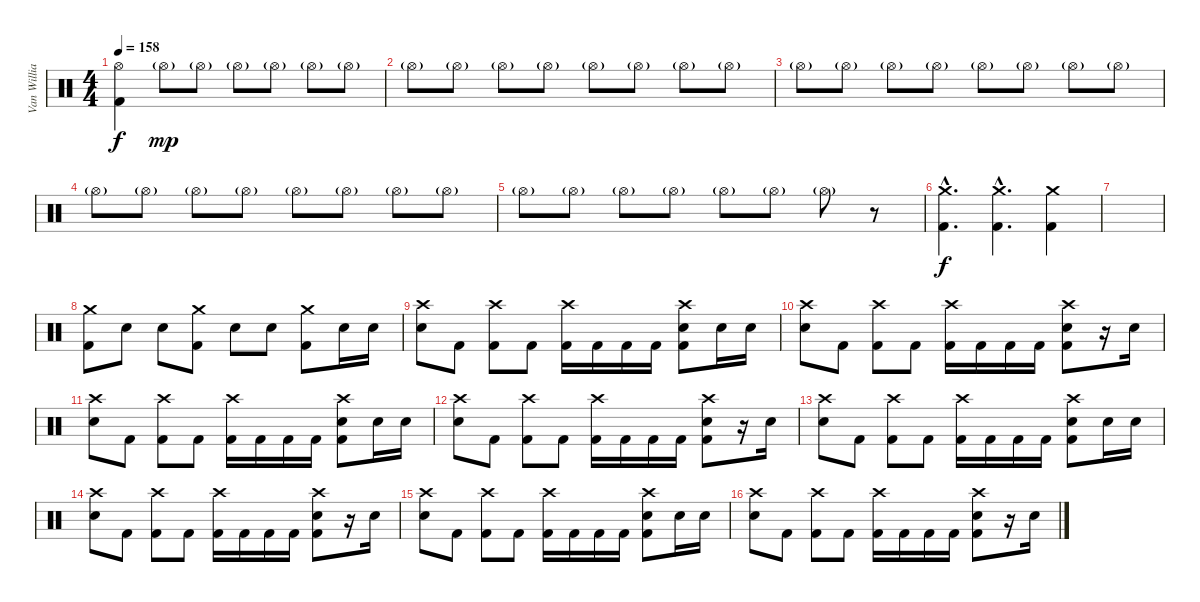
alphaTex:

\track ("Van Williams" "Van Willia") {instrument percussion}
\staff {score}
\articulation defaults
\ts (4 4)
\tempo 158
\clef neutral
\ks c
("Hi-Hat (open)" "Kick (hit) 2").4{dy f} "Hi-Hat (open)"{g}.8{dy mp} "Hi-Hat (open)"{g}.8 "Hi-Hat (open)"{g}.8 "Hi-Hat (open)"{g}.8 "Hi-Hat (open)"{g}.8 "Hi-Hat (open)"{g}.8 |
"Hi-Hat (open)"{g}.8 "Hi-Hat (open)"{g}.8 "Hi-Hat (open)"{g}.8 "Hi-Hat (open)"{g}.8 "Hi-Hat (open)"{g}.8 "Hi-Hat (open)"{g}.8 "Hi-Hat (open)"{g}.8 "Hi-Hat (open)"{g}.8 |
"Hi-Hat (open)"{g}.8 "Hi-Hat (open)"{g}.8 "Hi-Hat (open)"{g}.8 "Hi-Hat (open)"{g}.8 "Hi-Hat (open)"{g}.8 "Hi-Hat (open)"{g}.8 "Hi-Hat (open)"{g}.8 "Hi-Hat (open)"{g}.8 |
"Hi-Hat (open)"{g}.8 "Hi-Hat (open)"{g}.8 "Hi-Hat (open)"{g}.8 "Hi-Hat (open)"{g}.8 "Hi-Hat (open)"{g}.8 "Hi-Hat (open)"{g}.8 "Hi-Hat (open)"{g}.8 "Hi-Hat (open)"{g}.8 |
"Hi-Hat (open)"{g}.8 "Hi-Hat (open)"{g}.8 "Hi-Hat (open)"{g}.8 "Hi-Hat (open)"{g}.8 "Hi-Hat (open)"{g}.8 "Hi-Hat (open)"{g}.8 "Hi-Hat (open)"{g}.8 r.8 |
("Crash medium (hit)"{hac} "Kick (hit) 2"{hac}).4{d dy f} ("Crash medium (hit)"{hac} "Kick (hit) 2"{hac}).4{d} ("Crash medium (hit)" "Kick (hit) 2").4 |
|
("Crash medium (hit)" "Kick (hit) 2").8 "Electric Snare (hit)".8 "Electric Snare (hit)".8 ("Crash medium (hit)" "Kick (hit) 2").8 "Electric Snare (hit)".8 "Electric Snare (hit)".8 ("Crash medium (hit)" "Kick (hit) 2").8 "Electric Snare (hit)".16 "Electric Snare (hit)".16 |
("Crash high (hit)" "Electric Snare (hit)").8 "Kick (hit) 2".8 ("Crash high (hit)" "Kick (hit) 2").8 "Kick (hit) 2".8 ("Crash high (hit)" "Kick (hit) 2").16 "Kick (hit) 2".16 "Kick (hit) 2".16 "Kick (hit) 2".16 ("Crash high (hit)" "Electric Snare (hit)" "Kick (hit) 2").8 "Electric Snare (hit)".16 "Electric Snare (hit)".16 |
("Crash high (hit)" "Electric Snare (hit)").8 "Kick (hit) 2".8 ("Crash high (hit)" "Kick (hit) 2").8 "Kick (hit) 2".8 ("Crash high (hit)" "Kick (hit) 2").16 "Kick (hit) 2".16 "Kick (hit) 2".16 "Kick (hit) 2".16 ("Crash high (hit)" "Electric Snare (hit)" "Kick (hit) 2").8 r.16 "Electric Snare (hit)".16 |
("Crash high (hit)" "Electric Snare (hit)").8 "Kick (hit) 2".8 ("Crash high (hit)" "Kick (hit) 2").8 "Kick (hit) 2".8 ("Crash high (hit)" "Kick (hit) 2").16 "Kick (hit) 2".16 "Kick (hit) 2".16 "Kick (hit) 2".16 ("Crash high (hit)" "Electric Snare (hit)" "Kick (hit) 2").8 "Electric Snare (hit)".16 "Electric Snare (hit)".16 |
("Crash high (hit)" "Electric Snare (hit)").8 "Kick (hit) 2".8 ("Crash high (hit)" "Kick (hit) 2").8 "Kick (hit) 2".8 ("Crash high (hit)" "Kick (hit) 2").16 "Kick (hit) 2".16 "Kick (hit) 2".16 "Kick (hit) 2".16 ("Crash high (hit)" "Electric Snare (hit)" "Kick (hit) 2").8 r.16 "Electric Snare (hit)".16 |
("Crash high (hit)" "Electric Snare (hit)").8 "Kick (hit) 2".8 ("Crash high (hit)" "Kick (hit) 2").8 "Kick (hit) 2".8 ("Crash high (hit)" "Kick (hit) 2").16 "Kick (hit) 2".16 "Kick (hit) 2".16 "Kick (hit) 2".16 ("Crash high (hit)" "Electric Snare (hit)" "Kick (hit) 2").8 "Electric Snare (hit)".16 "Electric Snare (hit)".16 |
("Crash high (hit)" "Electric Snare (hit)").8 "Kick (hit) 2".8 ("Crash high (hit)" "Kick (hit) 2").8 "Kick (hit) 2".8 ("Crash high (hit)" "Kick (hit) 2").16 "Kick (hit) 2".16 "Kick (hit) 2".16 "Kick (hit) 2".16 ("Crash high (hit)" "Electric Snare (hit)" "Kick (hit) 2").8 r.16 "Electric Snare (hit)".16 |
("Crash high (hit)" "Electric Snare (hit)").8 "Kick (hit) 2".8 ("Crash high (hit)" "Kick (hit) 2").8 "Kick (hit) 2".8 ("Crash high (hit)" "Kick (hit) 2").16 "Kick (hit) 2".16 "Kick (hit) 2".16 "Kick (hit) 2".16 ("Crash high (hit)" "Electric Snare (hit)" "Kick (hit) 2").8 "Electric Snare (hit)".16 "Electric Snare (hit)".16 |
("Crash high (hit)" "Electric Snare (hit)").8 "Kick (hit) 2".8 ("Crash high (hit)" "Kick (hit) 2").8 "Kick (hit) 2".8 ("Crash high (hit)" "Kick (hit) 2").16 "Kick (hit) 2".16 "Kick (hit) 2".16 "Kick (hit) 2".16 ("Crash high (hit)" "Electric Snare (hit)" "Kick (hit) 2").8 r.16 "Electric Snare (hit)".16
